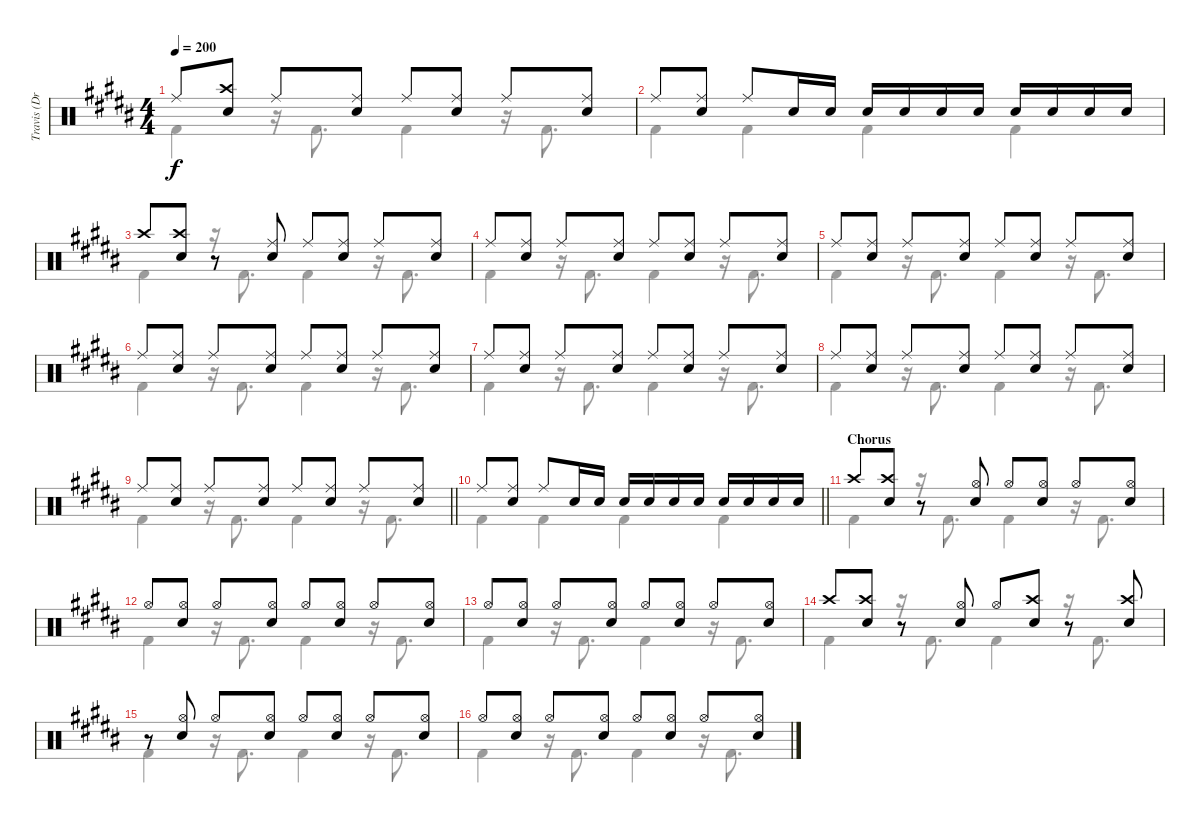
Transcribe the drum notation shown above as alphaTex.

\track ("Travis (Drums)" "Travis (Dr") {instrument percussion}
\staff {score}
\articulation defaults
\voice
\ts (4 4)
\tempo 200
\clef neutral
\ks b "Ride (middle)".8{dy f}
("Crash high (hit)" "Electric Snare (hit)").8 "Ride (middle)".8 ("Ride (middle)" "Electric Snare (hit)").8 "Ride (middle)".8 ("Ride (middle)" "Electric Snare (hit)").8 "Ride (middle)".8 ("Ride (middle)" "Electric Snare (hit)").8 |
"Ride (middle)".8 ("Ride (middle)" "Electric Snare (hit)").8 "Ride (middle)".8 "Electric Snare (hit)".16 "Electric Snare (hit)".16 "Electric Snare (hit)".16 "Electric Snare (hit)".16 "Electric Snare (hit)".16 "Electric Snare (hit)".16 "Electric Snare (hit)".16 "Electric Snare (hit)".16 "Electric Snare (hit)".16 "Electric Snare (hit)".16 |
"Crash high (hit)".8 ("Crash high (hit)" "Electric Snare (hit)").8 r.8 ("Ride (middle)" "Electric Snare (hit)").8 "Ride (middle)".8 ("Ride (middle)" "Electric Snare (hit)").8 "Ride (middle)".8 ("Ride (middle)" "Electric Snare (hit)").8 |
"Ride (middle)".8 ("Ride (middle)" "Electric Snare (hit)").8 "Ride (middle)".8 ("Ride (middle)" "Electric Snare (hit)").8 "Ride (middle)".8 ("Ride (middle)" "Electric Snare (hit)").8 "Ride (middle)".8 ("Ride (middle)" "Electric Snare (hit)").8 |
"Ride (middle)".8 ("Ride (middle)" "Electric Snare (hit)").8 "Ride (middle)".8 ("Ride (middle)" "Electric Snare (hit)").8 "Ride (middle)".8 ("Ride (middle)" "Electric Snare (hit)").8 "Ride (middle)".8 ("Ride (middle)" "Electric Snare (hit)").8 |
"Ride (middle)".8 ("Ride (middle)" "Electric Snare (hit)").8 "Ride (middle)".8 ("Ride (middle)" "Electric Snare (hit)").8 "Ride (middle)".8 ("Ride (middle)" "Electric Snare (hit)").8 "Ride (middle)".8 ("Ride (middle)" "Electric Snare (hit)").8 |
"Ride (middle)".8 ("Ride (middle)" "Electric Snare (hit)").8 "Ride (middle)".8 ("Ride (middle)" "Electric Snare (hit)").8 "Ride (middle)".8 ("Ride (middle)" "Electric Snare (hit)").8 "Ride (middle)".8 ("Ride (middle)" "Electric Snare (hit)").8 |
"Ride (middle)".8 ("Ride (middle)" "Electric Snare (hit)").8 "Ride (middle)".8 ("Ride (middle)" "Electric Snare (hit)").8 "Ride (middle)".8 ("Ride (middle)" "Electric Snare (hit)").8 "Ride (middle)".8 ("Ride (middle)" "Electric Snare (hit)").8 |
\barLineRight lightlight "Ride (middle)".8
("Ride (middle)" "Electric Snare (hit)").8 "Ride (middle)".8 ("Ride (middle)" "Electric Snare (hit)").8 "Ride (middle)".8 ("Ride (middle)" "Electric Snare (hit)").8 "Ride (middle)".8 ("Ride (middle)" "Electric Snare (hit)").8 |
\barLineRight lightlight "Ride (middle)".8
("Ride (middle)" "Electric Snare (hit)").8 "Ride (middle)".8 "Electric Snare (hit)".16 "Electric Snare (hit)".16 "Electric Snare (hit)".16 "Electric Snare (hit)".16 "Electric Snare (hit)".16 "Electric Snare (hit)".16 "Electric Snare (hit)".16 "Electric Snare (hit)".16 "Electric Snare (hit)".16 "Electric Snare (hit)".16 |
\section ("" "Chorus")
"Crash high (hit)".8 ("Crash high (hit)" "Electric Snare (hit)").8 r.8 ("Electric Snare (hit)" "Hi-Hat (open)").8 "Hi-Hat (open)".8 ("Electric Snare (hit)" "Hi-Hat (open)").8 "Hi-Hat (open)".8 ("Electric Snare (hit)" "Hi-Hat (open)").8 |
"Hi-Hat (open)".8 ("Electric Snare (hit)" "Hi-Hat (open)").8 "Hi-Hat (open)".8 ("Electric Snare (hit)" "Hi-Hat (open)").8 "Hi-Hat (open)".8 ("Electric Snare (hit)" "Hi-Hat (open)").8 "Hi-Hat (open)".8 ("Electric Snare (hit)" "Hi-Hat (open)").8 |
"Hi-Hat (open)".8 ("Electric Snare (hit)" "Hi-Hat (open)").8 "Hi-Hat (open)".8 ("Electric Snare (hit)" "Hi-Hat (open)").8 "Hi-Hat (open)".8 ("Electric Snare (hit)" "Hi-Hat (open)").8 "Hi-Hat (open)".8 ("Electric Snare (hit)" "Hi-Hat (open)").8 |
"Crash high (hit)".8 ("Crash high (hit)" "Electric Snare (hit)").8 r.8 ("Electric Snare (hit)" "Hi-Hat (open)").8 "Hi-Hat (open)".8 ("Crash high (hit)" "Electric Snare (hit)").8 r.8 ("Crash high (hit)" "Electric Snare (hit)").8 |
r.8 ("Electric Snare (hit)" "Hi-Hat (open)").8 "Hi-Hat (open)".8 ("Electric Snare (hit)" "Hi-Hat (open)").8 "Hi-Hat (open)".8 ("Electric Snare (hit)" "Hi-Hat (open)").8 "Hi-Hat (open)".8 ("Electric Snare (hit)" "Hi-Hat (open)").8 |
"Hi-Hat (open)".8 ("Electric Snare (hit)" "Hi-Hat (open)").8 "Hi-Hat (open)".8 ("Electric Snare (hit)" "Hi-Hat (open)").8 "Hi-Hat (open)".8 ("Electric Snare (hit)" "Hi-Hat (open)").8 "Hi-Hat (open)".8 ("Electric Snare (hit)" "Hi-Hat (open)").8
\voice
\clef neutral
\ottava regular
\simile none
\ks b "Kick (hit) 2".4{dy f}
r.16 "Kick (hit) 2".8{d} "Kick (hit) 2".4 r.16 "Kick (hit) 2".8{d} |
"Kick (hit) 2".4 "Kick (hit) 2".4 "Kick (hit) 2".4 "Kick (hit) 2".4 |
"Kick (hit) 2".4 r.16 "Kick (hit) 2".8{d} "Kick (hit) 2".4 r.16 "Kick (hit) 2".8{d} |
"Kick (hit) 2".4 r.16 "Kick (hit) 2".8{d} "Kick (hit) 2".4 r.16 "Kick (hit) 2".8{d} |
"Kick (hit) 2".4 r.16 "Kick (hit) 2".8{d} "Kick (hit) 2".4 r.16 "Kick (hit) 2".8{d} |
"Kick (hit) 2".4 r.16 "Kick (hit) 2".8{d} "Kick (hit) 2".4 r.16 "Kick (hit) 2".8{d} |
"Kick (hit) 2".4 r.16 "Kick (hit) 2".8{d} "Kick (hit) 2".4 r.16 "Kick (hit) 2".8{d} |
"Kick (hit) 2".4 r.16 "Kick (hit) 2".8{d} "Kick (hit) 2".4 r.16 "Kick (hit) 2".8{d} |
\barLineRight lightlight "Kick (hit) 2".4
r.16 "Kick (hit) 2".8{d} "Kick (hit) 2".4 r.16 "Kick (hit) 2".8{d} |
\barLineRight lightlight "Kick (hit) 2".4 "Kick (hit) 2".4 "Kick (hit) 2".4 "Kick (hit) 2".4
|
"Kick (hit) 2".4 r.16 "Kick (hit) 2".8{d} "Kick (hit) 2".4 r.16 "Kick (hit) 2".8{d} |
"Kick (hit) 2".4 r.16 "Kick (hit) 2".8{d} "Kick (hit) 2".4 r.16 "Kick (hit) 2".8{d} |
"Kick (hit) 2".4 r.16 "Kick (hit) 2".8{d} "Kick (hit) 2".4 r.16 "Kick (hit) 2".8{d} |
"Kick (hit) 2".4 r.16 "Kick (hit) 2".8{d} "Kick (hit) 2".4 r.16 "Kick (hit) 2".8{d} |
"Kick (hit) 2".4 r.16 "Kick (hit) 2".8{d} "Kick (hit) 2".4 r.16 "Kick (hit) 2".8{d} |
"Kick (hit) 2".4 r.16 "Kick (hit) 2".8{d} "Kick (hit) 2".4 r.16 "Kick (hit) 2".8{d}
